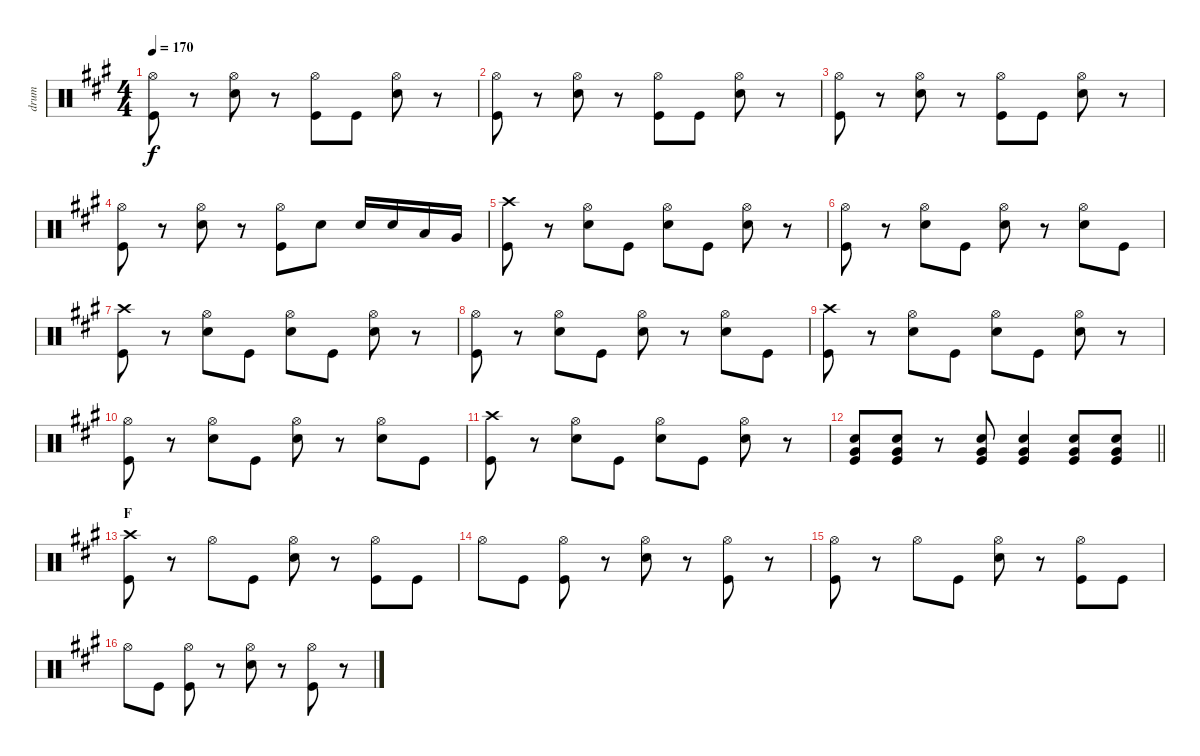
\track ("drum" "drum") {instrument percussion}
\staff {score}
\articulation defaults
\ts (4 4)
\tempo 170
\clef neutral
\ks a
("Hi-Hat (open)" "Kick (hit)").8{dy f} r.8 ("Hi-Hat (open)" "Snare (hit) 2").8 r.8 ("Hi-Hat (open)" "Kick (hit)").8 "Kick (hit)".8 ("Hi-Hat (open)" "Snare (hit) 2").8 r.8 |
("Hi-Hat (open)" "Kick (hit)").8 r.8 ("Hi-Hat (open)" "Snare (hit) 2").8 r.8 ("Hi-Hat (open)" "Kick (hit)").8 "Kick (hit)".8 ("Hi-Hat (open)" "Snare (hit) 2").8 r.8 |
("Hi-Hat (open)" "Kick (hit)").8 r.8 ("Hi-Hat (open)" "Snare (hit) 2").8 r.8 ("Hi-Hat (open)" "Kick (hit)").8 "Kick (hit)".8 ("Hi-Hat (open)" "Snare (hit) 2").8 r.8 |
("Hi-Hat (open)" "Kick (hit)").8 r.8 ("Hi-Hat (open)" "Snare (hit) 2").8 r.8 ("Hi-Hat (open)" "Kick (hit)").8 "Snare (hit) 2".8 "Snare (hit) 2".16 "Snare (hit) 2".16 "Low Tom (hit)".16 "Very Low Tom (hit)".16 |
("Crash high (hit)" "Kick (hit)").8 r.8 ("Hi-Hat (open)" "Snare (hit) 2").8 "Kick (hit)".8 ("Hi-Hat (open)" "Snare (hit) 2").8 "Kick (hit)".8 ("Hi-Hat (open)" "Snare (hit) 2").8 r.8 |
("Hi-Hat (open)" "Kick (hit)").8 r.8 ("Hi-Hat (open)" "Snare (hit) 2").8 "Kick (hit)".8 ("Hi-Hat (open)" "Snare (hit) 2").8 r.8 ("Hi-Hat (open)" "Snare (hit) 2").8 "Kick (hit)".8 |
("Crash high (hit)" "Kick (hit)").8 r.8 ("Hi-Hat (open)" "Snare (hit) 2").8 "Kick (hit)".8 ("Hi-Hat (open)" "Snare (hit) 2").8 "Kick (hit)".8 ("Hi-Hat (open)" "Snare (hit) 2").8 r.8 |
("Hi-Hat (open)" "Kick (hit)").8 r.8 ("Hi-Hat (open)" "Snare (hit) 2").8 "Kick (hit)".8 ("Hi-Hat (open)" "Snare (hit) 2").8 r.8 ("Hi-Hat (open)" "Snare (hit) 2").8 "Kick (hit)".8 |
("Crash high (hit)" "Kick (hit)").8 r.8 ("Hi-Hat (open)" "Snare (hit) 2").8 "Kick (hit)".8 ("Hi-Hat (open)" "Snare (hit) 2").8 "Kick (hit)".8 ("Hi-Hat (open)" "Snare (hit) 2").8 r.8 |
("Hi-Hat (open)" "Kick (hit)").8 r.8 ("Hi-Hat (open)" "Snare (hit) 2").8 "Kick (hit)".8 ("Hi-Hat (open)" "Snare (hit) 2").8 r.8 ("Hi-Hat (open)" "Snare (hit) 2").8 "Kick (hit)".8 |
("Crash high (hit)" "Kick (hit)").8 r.8 ("Hi-Hat (open)" "Snare (hit) 2").8 "Kick (hit)".8 ("Hi-Hat (open)" "Snare (hit) 2").8 "Kick (hit)".8 ("Hi-Hat (open)" "Snare (hit) 2").8 r.8 |
\barLineRight lightlight
("Snare (hit) 2" "Very Low Tom (hit)" "Kick (hit)").8 ("Snare (hit) 2" "Very Low Tom (hit)" "Kick (hit)").8 r.8 ("Snare (hit) 2" "Very Low Tom (hit)" "Kick (hit)").8 ("Snare (hit) 2" "Very Low Tom (hit)" "Kick (hit)").4 ("Snare (hit) 2" "Very Low Tom (hit)" "Kick (hit)").8 ("Snare (hit) 2" "Very Low Tom (hit)" "Kick (hit)").8 |
\section ("" "F")
("Crash high (hit)" "Kick (hit)").8 r.8 "Hi-Hat (open)".8 "Kick (hit)".8 ("Hi-Hat (open)" "Snare (hit) 2").8 r.8 ("Hi-Hat (open)" "Kick (hit)").8 "Kick (hit)".8 |
"Hi-Hat (open)".8 "Kick (hit)".8 ("Hi-Hat (open)" "Kick (hit)").8 r.8 ("Hi-Hat (open)" "Snare (hit) 2").8 r.8 ("Hi-Hat (open)" "Kick (hit)").8 r.8 |
("Hi-Hat (open)" "Kick (hit)").8 r.8 "Hi-Hat (open)".8 "Kick (hit)".8 ("Hi-Hat (open)" "Snare (hit) 2").8 r.8 ("Hi-Hat (open)" "Kick (hit)").8 "Kick (hit)".8 |
"Hi-Hat (open)".8 "Kick (hit)".8 ("Hi-Hat (open)" "Kick (hit)").8 r.8 ("Hi-Hat (open)" "Snare (hit) 2").8 r.8 ("Hi-Hat (open)" "Kick (hit)").8 r.8
